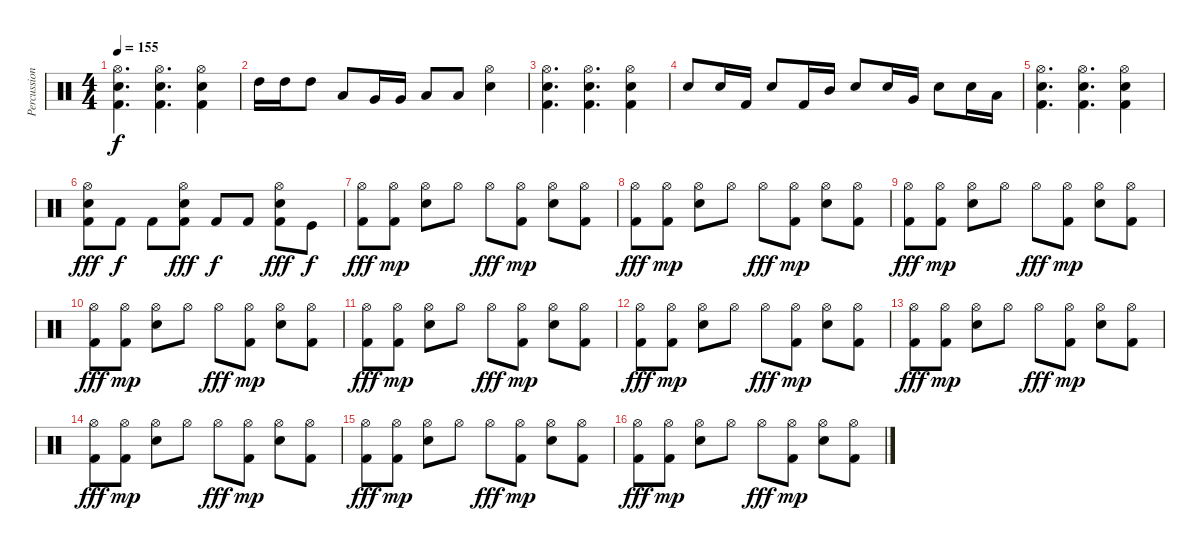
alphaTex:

\track ("Percussion" "Percussion") {instrument percussion}
\staff {score}
\articulation defaults
\ts (4 4)
\tempo 155
\clef neutral
\ks c
("Kick (hit) 2" "Snare (hit) 2" "Hi-Hat (open)").4{d dy f} ("Kick (hit) 2" "Snare (hit) 2" "Hi-Hat (open)").4{d} ("Kick (hit) 2" "Snare (hit) 2" "Hi-Hat (open)").4 |
"High Tom (hit)".16 "High Tom (hit)".16 "High Tom (hit)".8 "Low Tom (hit)".8 "Very Low Tom (hit)".16 "Very Low Tom (hit)".16 "Low Floor Tom (hit)".8 "Low Floor Tom (hit)".8 ("Snare (hit) 2" "Hi-Hat (open)").4 |
("Kick (hit) 2" "Snare (hit) 2" "Hi-Hat (open)").4{d} ("Kick (hit) 2" "Snare (hit) 2" "Hi-Hat (open)").4{d} ("Kick (hit) 2" "Snare (hit) 2" "Hi-Hat (open)").4 |
"Snare (hit) 2".8 "Snare (hit) 2".16 "Kick (hit) 2".16 "Snare (hit) 2".8 "Kick (hit) 2".16 "Mid Tom (hit)".16 "Snare (hit) 2".8 "Snare (hit) 2".16 "Very Low Tom (hit)".16 "Snare (hit) 2".8 "Snare (hit) 2".16 "Low Floor Tom (hit)".16 |
("Kick (hit) 2" "Snare (hit) 2" "Hi-Hat (open)").4{d} ("Kick (hit) 2" "Snare (hit) 2" "Hi-Hat (open)").4{d} ("Kick (hit) 2" "Snare (hit) 2" "Hi-Hat (open)").4 |
("Kick (hit) 2" "Snare (hit) 2" "Hi-Hat (open)").8{dy fff} "Kick (hit) 2".8{dy f} "Kick (hit) 2".8 ("Kick (hit) 2" "Snare (hit) 2" "Hi-Hat (open)").8{dy fff} "Kick (hit) 2".8{dy f} "Kick (hit) 2".8 ("Kick (hit) 2" "Snare (hit) 2" "Hi-Hat (open)").8{dy fff} "Kick (hit)".8{dy f} |
("Kick (hit) 2" "Hi-Hat (open)").8{dy fff} ("Kick (hit) 2" "Hi-Hat (open)").8{dy mp} ("Snare (hit) 2" "Hi-Hat (open)").8 "Hi-Hat (open)".8 "Hi-Hat (open)".8{dy fff} ("Kick (hit) 2" "Hi-Hat (open)").8{dy mp} ("Snare (hit) 2" "Hi-Hat (open)").8 ("Kick (hit) 2" "Hi-Hat (open)").8 |
("Kick (hit) 2" "Hi-Hat (open)").8{dy fff} ("Kick (hit) 2" "Hi-Hat (open)").8{dy mp} ("Snare (hit) 2" "Hi-Hat (open)").8 "Hi-Hat (open)".8 "Hi-Hat (open)".8{dy fff} ("Kick (hit) 2" "Hi-Hat (open)").8{dy mp} ("Snare (hit) 2" "Hi-Hat (open)").8 ("Kick (hit) 2" "Hi-Hat (open)").8 |
("Kick (hit) 2" "Hi-Hat (open)").8{dy fff} ("Kick (hit) 2" "Hi-Hat (open)").8{dy mp} ("Snare (hit) 2" "Hi-Hat (open)").8 "Hi-Hat (open)".8 "Hi-Hat (open)".8{dy fff} ("Kick (hit) 2" "Hi-Hat (open)").8{dy mp} ("Snare (hit) 2" "Hi-Hat (open)").8 ("Kick (hit) 2" "Hi-Hat (open)").8 |
("Kick (hit) 2" "Hi-Hat (open)").8{dy fff} ("Kick (hit) 2" "Hi-Hat (open)").8{dy mp} ("Snare (hit) 2" "Hi-Hat (open)").8 "Hi-Hat (open)".8 "Hi-Hat (open)".8{dy fff} ("Kick (hit) 2" "Hi-Hat (open)").8{dy mp} ("Snare (hit) 2" "Hi-Hat (open)").8 ("Kick (hit) 2" "Hi-Hat (open)").8 |
("Kick (hit) 2" "Hi-Hat (open)").8{dy fff} ("Kick (hit) 2" "Hi-Hat (open)").8{dy mp} ("Snare (hit) 2" "Hi-Hat (open)").8 "Hi-Hat (open)".8 "Hi-Hat (open)".8{dy fff} ("Kick (hit) 2" "Hi-Hat (open)").8{dy mp} ("Snare (hit) 2" "Hi-Hat (open)").8 ("Kick (hit) 2" "Hi-Hat (open)").8 |
("Kick (hit) 2" "Hi-Hat (open)").8{dy fff} ("Kick (hit) 2" "Hi-Hat (open)").8{dy mp} ("Snare (hit) 2" "Hi-Hat (open)").8 "Hi-Hat (open)".8 "Hi-Hat (open)".8{dy fff} ("Kick (hit) 2" "Hi-Hat (open)").8{dy mp} ("Snare (hit) 2" "Hi-Hat (open)").8 ("Kick (hit) 2" "Hi-Hat (open)").8 |
("Kick (hit) 2" "Hi-Hat (open)").8{dy fff} ("Kick (hit) 2" "Hi-Hat (open)").8{dy mp} ("Snare (hit) 2" "Hi-Hat (open)").8 "Hi-Hat (open)".8 "Hi-Hat (open)".8{dy fff} ("Kick (hit) 2" "Hi-Hat (open)").8{dy mp} ("Snare (hit) 2" "Hi-Hat (open)").8 ("Kick (hit) 2" "Hi-Hat (open)").8 |
("Kick (hit) 2" "Hi-Hat (open)").8{dy fff} ("Kick (hit) 2" "Hi-Hat (open)").8{dy mp} ("Snare (hit) 2" "Hi-Hat (open)").8 "Hi-Hat (open)".8 "Hi-Hat (open)".8{dy fff} ("Kick (hit) 2" "Hi-Hat (open)").8{dy mp} ("Snare (hit) 2" "Hi-Hat (open)").8 ("Kick (hit) 2" "Hi-Hat (open)").8 |
("Kick (hit) 2" "Hi-Hat (open)").8{dy fff} ("Kick (hit) 2" "Hi-Hat (open)").8{dy mp} ("Snare (hit) 2" "Hi-Hat (open)").8 "Hi-Hat (open)".8 "Hi-Hat (open)".8{dy fff} ("Kick (hit) 2" "Hi-Hat (open)").8{dy mp} ("Snare (hit) 2" "Hi-Hat (open)").8 ("Kick (hit) 2" "Hi-Hat (open)").8 |
("Kick (hit) 2" "Hi-Hat (open)").8{dy fff} ("Kick (hit) 2" "Hi-Hat (open)").8{dy mp} ("Snare (hit) 2" "Hi-Hat (open)").8 "Hi-Hat (open)".8 "Hi-Hat (open)".8{dy fff} ("Kick (hit) 2" "Hi-Hat (open)").8{dy mp} ("Snare (hit) 2" "Hi-Hat (open)").8 ("Kick (hit) 2" "Hi-Hat (open)").8
